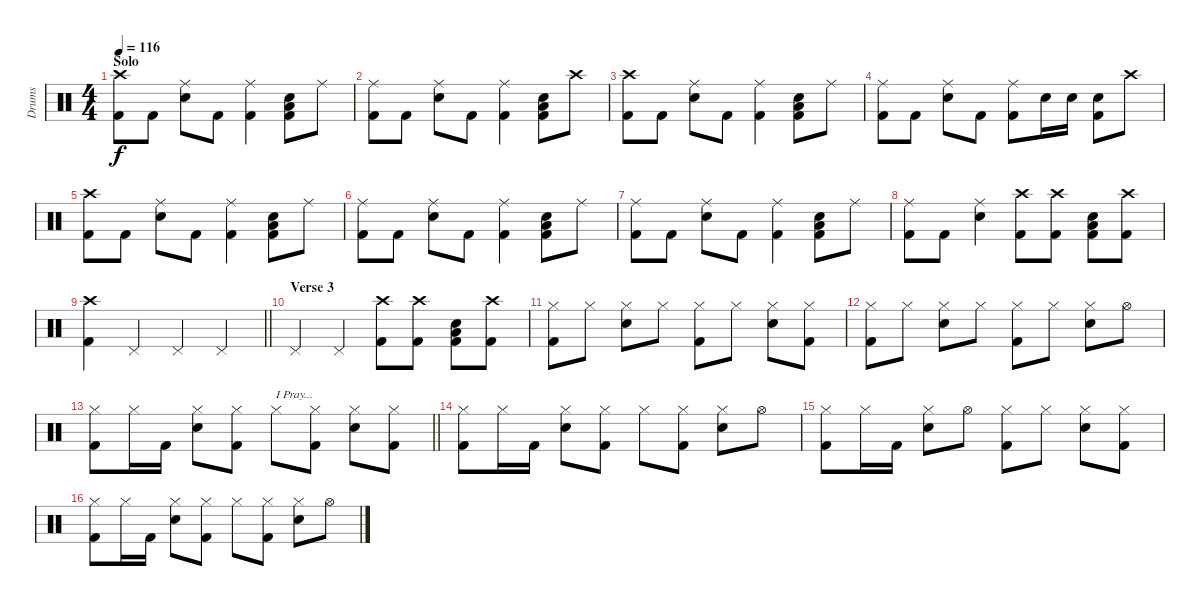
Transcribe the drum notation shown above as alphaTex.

\track ("Drums" "Drums") {instrument percussion}
\staff {score}
\articulation defaults
\ts (4 4)
\section ("" "Solo")
\tempo 116
\clef neutral
\ks c
("Crash high (hit)" "Kick (hit) 2").8{dy f} "Kick (hit) 2".8 ("Ride (middle)" "Snare (hit) 2").8 "Kick (hit) 2".8 ("Ride (middle)" "Kick (hit) 2").4 ("Snare (hit) 2" "Low Floor Tom (hit)" "Kick (hit) 2").8 "Ride (middle)".8 |
("Ride (middle)" "Kick (hit) 2").8 "Kick (hit) 2".8 ("Ride (middle)" "Snare (hit) 2").8 "Kick (hit) 2".8 ("Ride (middle)" "Kick (hit) 2").4 ("Snare (hit) 2" "Low Floor Tom (hit)" "Kick (hit) 2").8 "Crash high (hit)".8 |
("Crash high (hit)" "Kick (hit) 2").8 "Kick (hit) 2".8 ("Ride (middle)" "Snare (hit) 2").8 "Kick (hit) 2".8 ("Ride (middle)" "Kick (hit) 2").4 ("Snare (hit) 2" "Low Floor Tom (hit)" "Kick (hit) 2").8 "Ride (middle)".8 |
("Ride (middle)" "Kick (hit) 2").8 "Kick (hit) 2".8 ("Ride (middle)" "Snare (hit) 2").8 "Kick (hit) 2".8 ("Ride (middle)" "Kick (hit) 2").8 "Snare (hit) 2".16 "Snare (hit) 2".16 ("Snare (hit) 2" "Kick (hit) 2").8 "Crash high (hit)".8 |
("Crash high (hit)" "Kick (hit) 2").8 "Kick (hit) 2".8 ("Ride (middle)" "Snare (hit) 2").8 "Kick (hit) 2".8 ("Ride (middle)" "Kick (hit) 2").4 ("Snare (hit) 2" "Low Floor Tom (hit)" "Kick (hit) 2").8 "Ride (middle)".8 |
("Ride (middle)" "Kick (hit) 2").8 "Kick (hit) 2".8 ("Ride (middle)" "Snare (hit) 2").8 "Kick (hit) 2".8 ("Ride (middle)" "Kick (hit) 2").4 ("Snare (hit) 2" "Low Floor Tom (hit)" "Kick (hit) 2").8 "Ride (middle)".8 |
("Ride (middle)" "Kick (hit) 2").8 "Kick (hit) 2".8 ("Ride (middle)" "Snare (hit) 2").8 "Kick (hit) 2".8 ("Ride (middle)" "Kick (hit) 2").4 ("Snare (hit) 2" "Low Floor Tom (hit)" "Kick (hit) 2").8 "Ride (middle)".8 |
("Ride (middle)" "Kick (hit) 2").8 "Kick (hit) 2".8 ("Ride (middle)" "Snare (hit) 2").4 ("Crash high (hit)" "Kick (hit) 2").8 ("Crash high (hit)" "Kick (hit) 2").8 ("Snare (hit) 2" "Low Floor Tom (hit)" "Kick (hit) 2").8 ("Crash high (hit)" "Kick (hit) 2").8 |
\barLineRight lightlight
("Crash high (hit)" "Kick (hit) 2").4 "Pedal Hi-Hat (hit)".4 "Pedal Hi-Hat (hit)".4 "Pedal Hi-Hat (hit)".4 |
\section ("" "Verse 3")
"Pedal Hi-Hat (hit)".4 "Pedal Hi-Hat (hit)".4 ("Crash high (hit)" "Kick (hit) 2").8 ("Crash high (hit)" "Kick (hit) 2").8 ("Snare (hit) 2" "Low Floor Tom (hit)" "Kick (hit) 2").8 ("Crash high (hit)" "Kick (hit) 2").8 |
("Hi-Hat (closed)" "Kick (hit) 2").8 "Hi-Hat (closed)".8 ("Hi-Hat (closed)" "Snare (hit) 2").8 "Hi-Hat (closed)".8 ("Hi-Hat (closed)" "Kick (hit) 2").8 "Hi-Hat (closed)".8 ("Hi-Hat (closed)" "Snare (hit) 2").8 ("Hi-Hat (closed)" "Kick (hit) 2").8 |
("Hi-Hat (closed)" "Kick (hit) 2").8 "Hi-Hat (closed)".8 ("Hi-Hat (closed)" "Snare (hit) 2").8 "Hi-Hat (closed)".8 ("Hi-Hat (closed)" "Kick (hit) 2").8 "Hi-Hat (closed)".8 ("Hi-Hat (closed)" "Snare (hit) 2").8 "Hi-Hat (open)".8 |
\barLineRight lightlight
("Hi-Hat (closed)" "Kick (hit) 2").8 "Hi-Hat (closed)".16 "Kick (hit) 2".16 ("Hi-Hat (closed)" "Snare (hit) 2").8 ("Hi-Hat (closed)" "Kick (hit) 2").8 "Hi-Hat (closed)".8{txt "I Pray..."} ("Hi-Hat (closed)" "Kick (hit) 2").8 ("Hi-Hat (closed)" "Snare (hit) 2").8 ("Hi-Hat (closed)" "Kick (hit) 2").8 |
("Hi-Hat (closed)" "Kick (hit) 2").8 "Hi-Hat (closed)".16 "Kick (hit) 2".16 ("Hi-Hat (closed)" "Snare (hit) 2").8 ("Hi-Hat (closed)" "Kick (hit) 2").8 "Hi-Hat (closed)".8 ("Hi-Hat (closed)" "Kick (hit) 2").8 ("Hi-Hat (closed)" "Snare (hit) 2").8 "Hi-Hat (open)".8 |
("Hi-Hat (closed)" "Kick (hit) 2").8 "Hi-Hat (closed)".16 "Kick (hit) 2".16 ("Hi-Hat (closed)" "Snare (hit) 2").8 "Hi-Hat (open)".8 ("Hi-Hat (closed)" "Kick (hit) 2").8 "Hi-Hat (closed)".8 ("Hi-Hat (closed)" "Snare (hit) 2").8 ("Hi-Hat (closed)" "Kick (hit) 2").8 |
("Hi-Hat (closed)" "Kick (hit) 2").8 "Hi-Hat (closed)".16 "Kick (hit) 2".16 ("Hi-Hat (closed)" "Snare (hit) 2").8 ("Hi-Hat (closed)" "Kick (hit) 2").8 "Hi-Hat (closed)".8 ("Hi-Hat (closed)" "Kick (hit) 2").8 ("Hi-Hat (closed)" "Snare (hit) 2").8 "Hi-Hat (open)".8
